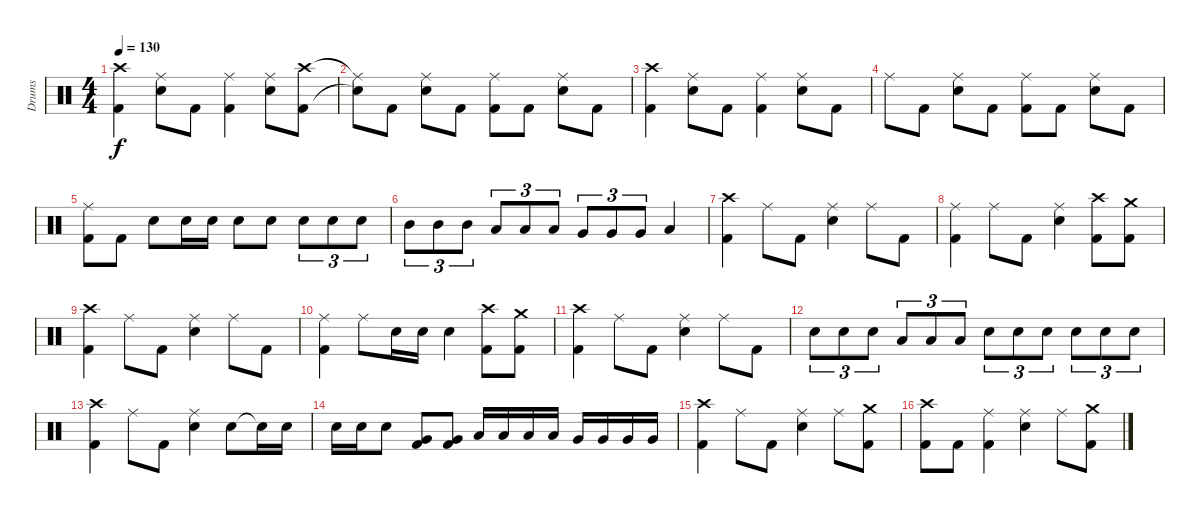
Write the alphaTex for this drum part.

\track ("Drums" "Drums") {instrument percussion}
\staff {score}
\articulation defaults
\ts (4 4)
\tempo 130
\clef neutral
\ks c
("Crash high (hit)" "Kick (hit) 2").4{dy f} ("Ride (middle)" "Electric Snare (hit)").8 "Kick (hit) 2".8 ("Ride (middle)" "Kick (hit) 2").4 ("Ride (middle)" "Electric Snare (hit)").8 ("Crash high (hit)" "Kick (hit) 2").8 |
("Ride (middle)"{t} "Snare (hit)"{t}).8 "Kick (hit) 2".8 ("Ride (middle)" "Electric Snare (hit)").8 "Kick (hit) 2".8 ("Ride (middle)" "Kick (hit) 2").8 "Kick (hit) 2".8 ("Ride (middle)" "Electric Snare (hit)").8 "Kick (hit) 2".8 |
("Crash high (hit)" "Kick (hit) 2").4 ("Ride (middle)" "Electric Snare (hit)").8 "Kick (hit) 2".8 ("Ride (middle)" "Kick (hit) 2").4 ("Ride (middle)" "Electric Snare (hit)").8 "Kick (hit) 2".8 |
"Ride (middle)".8 "Kick (hit) 2".8 ("Ride (middle)" "Electric Snare (hit)").8 "Kick (hit) 2".8 ("Ride (middle)" "Kick (hit) 2").8 "Kick (hit) 2".8 ("Ride (middle)" "Electric Snare (hit)").8 "Kick (hit) 2".8 |
("Ride (middle)" "Kick (hit) 2").8 "Kick (hit) 2".8 "Electric Snare (hit)".8 "Electric Snare (hit)".16 "Electric Snare (hit)".16 "Electric Snare (hit)".8 "Electric Snare (hit)".8 "Electric Snare (hit)".8{tu (3 2)} "Electric Snare (hit)".8{tu (3 2)} "Electric Snare (hit)".8{tu (3 2)} |
"Mid Tom (hit)".8{tu (3 2)} "Mid Tom (hit)".8{tu (3 2)} "Mid Tom (hit)".8{tu (3 2)} "Low Tom (hit)".8{tu (3 2)} "Low Tom (hit)".8{tu (3 2)} "Low Tom (hit)".8{tu (3 2)} "Very Low Tom (hit)".8{tu (3 2)} "Very Low Tom (hit)".8{tu (3 2)} "Very Low Tom (hit)".8{tu (3 2)} "Low Floor Tom (hit)".4 |
("Crash high (hit)" "Kick (hit) 2").4 "Ride (middle)".8 "Kick (hit) 2".8 ("Ride (middle)" "Electric Snare (hit)").4 "Ride (middle)".8 "Kick (hit) 2".8 |
("Ride (middle)" "Kick (hit) 2").4 "Ride (middle)".8 "Kick (hit) 2".8 ("Ride (middle)" "Electric Snare (hit)").4 ("Crash high (hit)" "Kick (hit) 2").8 ("Crash medium (hit)" "Kick (hit) 2").8 |
("Crash high (hit)" "Kick (hit) 2").4 "Ride (middle)".8 "Kick (hit) 2".8 ("Ride (middle)" "Electric Snare (hit)").4 "Ride (middle)".8 "Kick (hit) 2".8 |
("Ride (middle)" "Kick (hit) 2").4 "Ride (middle)".8 "Electric Snare (hit)".16 "Electric Snare (hit)".16 "Electric Snare (hit)".4 ("Crash high (hit)" "Kick (hit) 2").8 ("Crash medium (hit)" "Kick (hit) 2").8 |
("Crash high (hit)" "Kick (hit) 2").4 "Ride (middle)".8 "Kick (hit) 2".8 ("Ride (middle)" "Electric Snare (hit)").4 "Ride (middle)".8 "Kick (hit) 2".8 |
"Electric Snare (hit)".8{tu (3 2)} "Electric Snare (hit)".8{tu (3 2)} "Electric Snare (hit)".8{tu (3 2)} "Low Tom (hit)".8{tu (3 2)} "Low Tom (hit)".8{tu (3 2)} "Low Tom (hit)".8{tu (3 2)} "Electric Snare (hit)".8{tu (3 2)} "Electric Snare (hit)".8{tu (3 2)} "Electric Snare (hit)".8{tu (3 2)} "Electric Snare (hit)".8{tu (3 2)} "Electric Snare (hit)".8{tu (3 2)} "Electric Snare (hit)".8{tu (3 2)} |
("Crash high (hit)" "Kick (hit) 2").4 "Ride (middle)".8 "Kick (hit) 2".8 ("Ride (middle)" "Electric Snare (hit)").4 "Electric Snare (hit)".8 "Snare (hit)"{t}.16 "Electric Snare (hit)".16 |
"Electric Snare (hit)".16 "Electric Snare (hit)".16 "Electric Snare (hit)".8 ("Very Low Tom (hit)" "Kick (hit) 2").8 ("Very Low Tom (hit)" "Kick (hit) 2").8 "Low Tom (hit)".16 "Low Tom (hit)".16 "Low Tom (hit)".16 "Low Tom (hit)".16 "Very Low Tom (hit)".16 "Very Low Tom (hit)".16 "Very Low Tom (hit)".16 "Very Low Tom (hit)".16 |
("Crash high (hit)" "Kick (hit) 2").4 "Ride (middle)".8 "Kick (hit) 2".8 ("Ride (middle)" "Electric Snare (hit)").4 "Ride (middle)".8 ("Crash medium (hit)" "Kick (hit) 2").8 |
("Crash high (hit)" "Kick (hit) 2").8 "Kick (hit) 2".8 ("Ride (middle)" "Kick (hit) 2").4 ("Ride (middle)" "Electric Snare (hit)").4 "Ride (middle)".8 ("Crash medium (hit)" "Kick (hit) 2").8
